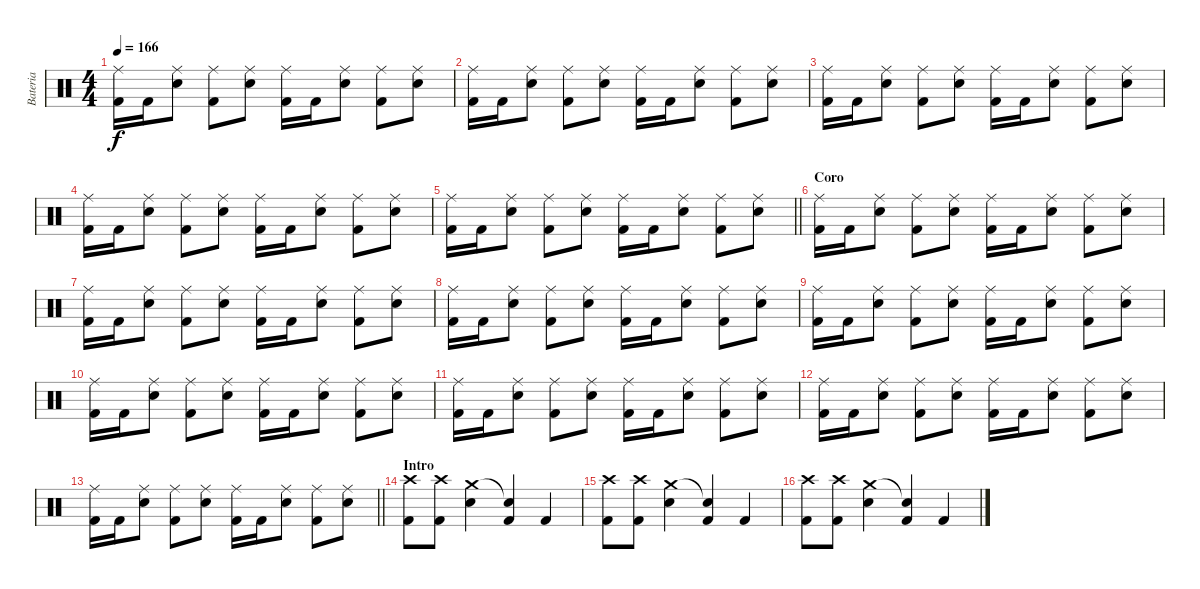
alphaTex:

\track ("Bateria" "Bateria") {instrument percussion}
\staff {score}
\articulation defaults
\ts (4 4)
\tempo 166
\clef neutral
\ks c
("Ride (middle)" "Kick (hit) 2").16{dy f} "Kick (hit) 2".16 ("Ride (middle)" "Electric Snare (hit)").8 ("Ride (middle)" "Kick (hit) 2").8 ("Ride (middle)" "Electric Snare (hit)").8 ("Ride (middle)" "Kick (hit) 2").16 "Kick (hit) 2".16 ("Ride (middle)" "Electric Snare (hit)").8 ("Ride (middle)" "Kick (hit) 2").8 ("Ride (middle)" "Electric Snare (hit)").8 |
("Ride (middle)" "Kick (hit) 2").16 "Kick (hit) 2".16 ("Ride (middle)" "Electric Snare (hit)").8 ("Ride (middle)" "Kick (hit) 2").8 ("Ride (middle)" "Electric Snare (hit)").8 ("Ride (middle)" "Kick (hit) 2").16 "Kick (hit) 2".16 ("Ride (middle)" "Electric Snare (hit)").8 ("Ride (middle)" "Kick (hit) 2").8 ("Ride (middle)" "Electric Snare (hit)").8 |
("Ride (middle)" "Kick (hit) 2").16 "Kick (hit) 2".16 ("Ride (middle)" "Electric Snare (hit)").8 ("Ride (middle)" "Kick (hit) 2").8 ("Ride (middle)" "Electric Snare (hit)").8 ("Ride (middle)" "Kick (hit) 2").16 "Kick (hit) 2".16 ("Ride (middle)" "Electric Snare (hit)").8 ("Ride (middle)" "Kick (hit) 2").8 ("Ride (middle)" "Electric Snare (hit)").8 |
("Ride (middle)" "Kick (hit) 2").16 "Kick (hit) 2".16 ("Ride (middle)" "Electric Snare (hit)").8 ("Ride (middle)" "Kick (hit) 2").8 ("Ride (middle)" "Electric Snare (hit)").8 ("Ride (middle)" "Kick (hit) 2").16 "Kick (hit) 2".16 ("Ride (middle)" "Electric Snare (hit)").8 ("Ride (middle)" "Kick (hit) 2").8 ("Ride (middle)" "Electric Snare (hit)").8 |
\barLineRight lightlight
("Ride (middle)" "Kick (hit) 2").16 "Kick (hit) 2".16 ("Ride (middle)" "Electric Snare (hit)").8 ("Ride (middle)" "Kick (hit) 2").8 ("Ride (middle)" "Electric Snare (hit)").8 ("Ride (middle)" "Kick (hit) 2").16 "Kick (hit) 2".16 ("Ride (middle)" "Electric Snare (hit)").8 ("Ride (middle)" "Kick (hit) 2").8 ("Ride (middle)" "Electric Snare (hit)").8 |
\section ("" "Coro")
("Ride (middle)" "Kick (hit) 2").16 "Kick (hit) 2".16 ("Ride (middle)" "Electric Snare (hit)").8 ("Ride (middle)" "Kick (hit) 2").8 ("Ride (middle)" "Electric Snare (hit)").8 ("Ride (middle)" "Kick (hit) 2").16 "Kick (hit) 2".16 ("Ride (middle)" "Electric Snare (hit)").8 ("Ride (middle)" "Kick (hit) 2").8 ("Ride (middle)" "Electric Snare (hit)").8 |
("Ride (middle)" "Kick (hit) 2").16 "Kick (hit) 2".16 ("Ride (middle)" "Electric Snare (hit)").8 ("Ride (middle)" "Kick (hit) 2").8 ("Ride (middle)" "Electric Snare (hit)").8 ("Ride (middle)" "Kick (hit) 2").16 "Kick (hit) 2".16 ("Ride (middle)" "Electric Snare (hit)").8 ("Ride (middle)" "Kick (hit) 2").8 ("Ride (middle)" "Electric Snare (hit)").8 |
("Ride (middle)" "Kick (hit) 2").16 "Kick (hit) 2".16 ("Ride (middle)" "Electric Snare (hit)").8 ("Ride (middle)" "Kick (hit) 2").8 ("Ride (middle)" "Electric Snare (hit)").8 ("Ride (middle)" "Kick (hit) 2").16 "Kick (hit) 2".16 ("Ride (middle)" "Electric Snare (hit)").8 ("Ride (middle)" "Kick (hit) 2").8 ("Ride (middle)" "Electric Snare (hit)").8 |
("Ride (middle)" "Kick (hit) 2").16 "Kick (hit) 2".16 ("Ride (middle)" "Electric Snare (hit)").8 ("Ride (middle)" "Kick (hit) 2").8 ("Ride (middle)" "Electric Snare (hit)").8 ("Ride (middle)" "Kick (hit) 2").16 "Kick (hit) 2".16 ("Ride (middle)" "Electric Snare (hit)").8 ("Ride (middle)" "Kick (hit) 2").8 ("Ride (middle)" "Electric Snare (hit)").8 |
("Ride (middle)" "Kick (hit) 2").16 "Kick (hit) 2".16 ("Ride (middle)" "Electric Snare (hit)").8 ("Ride (middle)" "Kick (hit) 2").8 ("Ride (middle)" "Electric Snare (hit)").8 ("Ride (middle)" "Kick (hit) 2").16 "Kick (hit) 2".16 ("Ride (middle)" "Electric Snare (hit)").8 ("Ride (middle)" "Kick (hit) 2").8 ("Ride (middle)" "Electric Snare (hit)").8 |
("Ride (middle)" "Kick (hit) 2").16 "Kick (hit) 2".16 ("Ride (middle)" "Electric Snare (hit)").8 ("Ride (middle)" "Kick (hit) 2").8 ("Ride (middle)" "Electric Snare (hit)").8 ("Ride (middle)" "Kick (hit) 2").16 "Kick (hit) 2".16 ("Ride (middle)" "Electric Snare (hit)").8 ("Ride (middle)" "Kick (hit) 2").8 ("Ride (middle)" "Electric Snare (hit)").8 |
("Ride (middle)" "Kick (hit) 2").16 "Kick (hit) 2".16 ("Ride (middle)" "Electric Snare (hit)").8 ("Ride (middle)" "Kick (hit) 2").8 ("Ride (middle)" "Electric Snare (hit)").8 ("Ride (middle)" "Kick (hit) 2").16 "Kick (hit) 2".16 ("Ride (middle)" "Electric Snare (hit)").8 ("Ride (middle)" "Kick (hit) 2").8 ("Ride (middle)" "Electric Snare (hit)").8 |
\barLineRight lightlight
("Ride (middle)" "Kick (hit) 2").16 "Kick (hit) 2".16 ("Ride (middle)" "Electric Snare (hit)").8 ("Ride (middle)" "Kick (hit) 2").8 ("Ride (middle)" "Electric Snare (hit)").8 ("Ride (middle)" "Kick (hit) 2").16 "Kick (hit) 2".16 ("Ride (middle)" "Electric Snare (hit)").8 ("Ride (middle)" "Kick (hit) 2").8 ("Ride (middle)" "Electric Snare (hit)").8 |
\section ("" "Intro")
("Crash high (hit)" "Kick (hit) 2").8 ("Crash high (hit)" "Kick (hit) 2").8 ("Crash medium (hit)" "Electric Snare (hit)").4 ("Snare (hit)"{t} "Kick (hit) 2").4 "Kick (hit) 2".4 |
("Crash high (hit)" "Kick (hit) 2").8 ("Crash high (hit)" "Kick (hit) 2").8 ("Crash medium (hit)" "Electric Snare (hit)").4 ("Snare (hit)"{t} "Kick (hit) 2").4 "Kick (hit) 2".4 |
("Crash high (hit)" "Kick (hit) 2").8 ("Crash high (hit)" "Kick (hit) 2").8 ("Crash medium (hit)" "Electric Snare (hit)").4 ("Snare (hit)"{t} "Kick (hit) 2").4 "Kick (hit) 2".4
